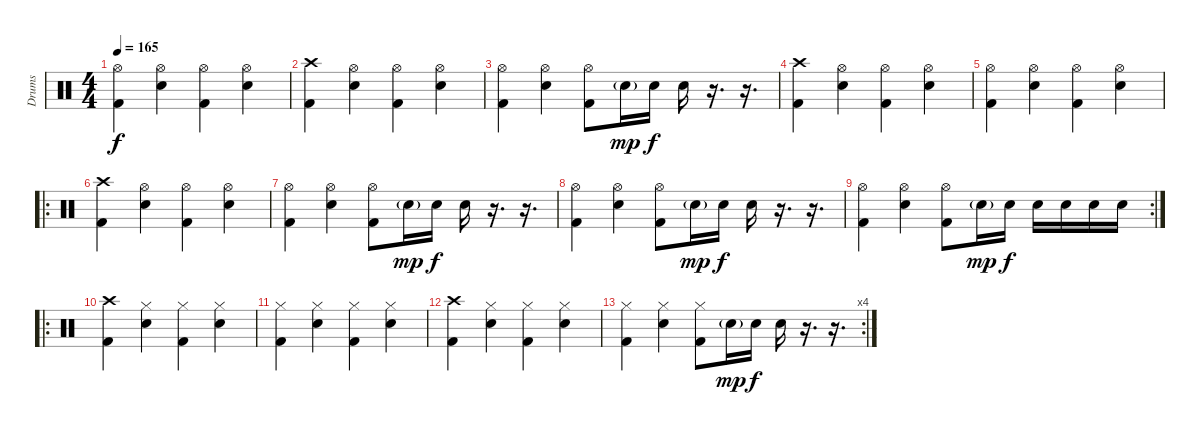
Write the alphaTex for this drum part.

\track ("Drums" "Drums") {instrument percussion}
\staff {score}
\articulation defaults
\ts (4 4)
\tempo 165
\clef neutral
\ks c
("Hi-Hat (open)" "Kick (hit) 2").4{dy f} ("Hi-Hat (open)" "Snare (hit) 2").4 ("Hi-Hat (open)" "Kick (hit) 2").4 ("Hi-Hat (open)" "Snare (hit) 2").4 |
("Crash high (hit)" "Kick (hit) 2").4 ("Hi-Hat (open)" "Snare (hit) 2").4 ("Hi-Hat (open)" "Kick (hit) 2").4 ("Hi-Hat (open)" "Snare (hit) 2").4 |
("Hi-Hat (open)" "Kick (hit) 2").4 ("Hi-Hat (open)" "Snare (hit) 2").4 ("Hi-Hat (open)" "Kick (hit) 2").8 "Snare (hit) 2"{g}.16{dy mp} "Snare (hit) 2".16{dy f} "Snare (hit) 2".16 r.16{d} r.16{d} |
("Crash high (hit)" "Kick (hit) 2").4 ("Hi-Hat (open)" "Snare (hit) 2").4 ("Hi-Hat (open)" "Kick (hit) 2").4 ("Hi-Hat (open)" "Snare (hit) 2").4 |
("Hi-Hat (open)" "Kick (hit) 2").4 ("Hi-Hat (open)" "Snare (hit) 2").4 ("Hi-Hat (open)" "Kick (hit) 2").4 ("Hi-Hat (open)" "Snare (hit) 2").4 |
\ro
("Crash high (hit)" "Kick (hit) 2").4 ("Hi-Hat (open)" "Snare (hit) 2").4 ("Hi-Hat (open)" "Kick (hit) 2").4 ("Hi-Hat (open)" "Snare (hit) 2").4 |
("Hi-Hat (open)" "Kick (hit) 2").4 ("Hi-Hat (open)" "Snare (hit) 2").4 ("Hi-Hat (open)" "Kick (hit) 2").8 "Snare (hit) 2"{g}.16{dy mp} "Snare (hit) 2".16{dy f} "Snare (hit) 2".16 r.16{d} r.16{d} |
("Hi-Hat (open)" "Kick (hit) 2").4 ("Hi-Hat (open)" "Snare (hit) 2").4 ("Hi-Hat (open)" "Kick (hit) 2").8 "Snare (hit) 2"{g}.16{dy mp} "Snare (hit) 2".16{dy f} "Snare (hit) 2".16 r.16{d} r.16{d} |
\rc 2
("Hi-Hat (open)" "Kick (hit) 2").4 ("Hi-Hat (open)" "Snare (hit) 2").4 ("Hi-Hat (open)" "Kick (hit) 2").8 "Snare (hit) 2"{g}.16{dy mp} "Snare (hit) 2".16{dy f} "Snare (hit) 2".16 "Snare (hit) 2".16 "Snare (hit) 2".16 "Snare (hit) 2".16 |
\ro
("Crash high (hit)" "Kick (hit) 2").4 ("Hi-Hat (closed)" "Snare (hit) 2").4 ("Hi-Hat (closed)" "Kick (hit) 2").4 ("Hi-Hat (closed)" "Snare (hit) 2").4 |
("Hi-Hat (closed)" "Kick (hit) 2").4 ("Hi-Hat (closed)" "Snare (hit) 2").4 ("Hi-Hat (closed)" "Kick (hit) 2").4 ("Hi-Hat (closed)" "Snare (hit) 2").4 |
("Crash high (hit)" "Kick (hit) 2").4 ("Hi-Hat (closed)" "Snare (hit) 2").4 ("Hi-Hat (closed)" "Kick (hit) 2").4 ("Hi-Hat (closed)" "Snare (hit) 2").4 |
\rc 4
("Hi-Hat (closed)" "Kick (hit) 2").4 ("Hi-Hat (closed)" "Snare (hit) 2").4 ("Hi-Hat (closed)" "Kick (hit) 2").8 "Snare (hit) 2"{g}.16{dy mp} "Snare (hit) 2".16{dy f} "Snare (hit) 2".16 r.16{d} r.16{d}
